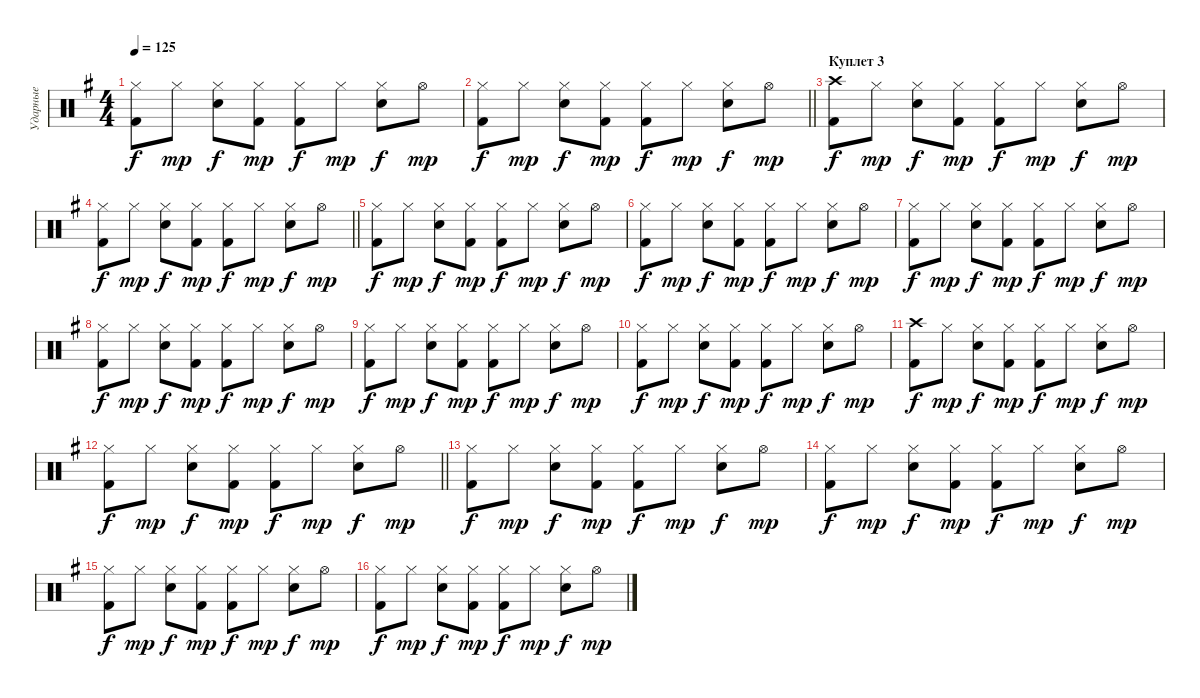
\track ("Ударные" "Ударные") {instrument percussion}
\staff {score}
\articulation defaults
\ts (4 4)
\tempo 125
\clef neutral
\ks eminor
("Hi-Hat (closed)" "Kick (hit) 2").8{dy f} "Hi-Hat (closed)".8{dy mp} ("Hi-Hat (closed)" "Snare (hit) 2").8{dy f} ("Hi-Hat (closed)" "Kick (hit) 2").8{dy mp} ("Hi-Hat (closed)" "Kick (hit) 2").8{dy f} "Hi-Hat (closed)".8{dy mp} ("Hi-Hat (closed)" "Snare (hit) 2").8{dy f} "Hi-Hat (open)".8{dy mp} |
\barLineRight lightlight
("Hi-Hat (closed)" "Kick (hit) 2").8{dy f} "Hi-Hat (closed)".8{dy mp} ("Hi-Hat (closed)" "Snare (hit) 2").8{dy f} ("Hi-Hat (closed)" "Kick (hit) 2").8{dy mp} ("Hi-Hat (closed)" "Kick (hit) 2").8{dy f} "Hi-Hat (closed)".8{dy mp} ("Hi-Hat (closed)" "Snare (hit) 2").8{dy f} "Hi-Hat (open)".8{dy mp} |
\section ("" "Куплет 3")
("Crash high (hit)" "Kick (hit) 2").8{dy f} "Hi-Hat (closed)".8{dy mp} ("Hi-Hat (closed)" "Snare (hit) 2").8{dy f} ("Hi-Hat (closed)" "Kick (hit) 2").8{dy mp} ("Hi-Hat (closed)" "Kick (hit) 2").8{dy f} "Hi-Hat (closed)".8{dy mp} ("Hi-Hat (closed)" "Snare (hit) 2").8{dy f} "Hi-Hat (open)".8{dy mp} |
\barLineRight lightlight
("Hi-Hat (closed)" "Kick (hit) 2").8{dy f} "Hi-Hat (closed)".8{dy mp} ("Hi-Hat (closed)" "Snare (hit) 2").8{dy f} ("Hi-Hat (closed)" "Kick (hit) 2").8{dy mp} ("Hi-Hat (closed)" "Kick (hit) 2").8{dy f} "Hi-Hat (closed)".8{dy mp} ("Hi-Hat (closed)" "Snare (hit) 2").8{dy f} "Hi-Hat (open)".8{dy mp} |
("Hi-Hat (closed)" "Kick (hit) 2").8{dy f} "Hi-Hat (closed)".8{dy mp} ("Hi-Hat (closed)" "Snare (hit) 2").8{dy f} ("Hi-Hat (closed)" "Kick (hit) 2").8{dy mp} ("Hi-Hat (closed)" "Kick (hit) 2").8{dy f} "Hi-Hat (closed)".8{dy mp} ("Hi-Hat (closed)" "Snare (hit) 2").8{dy f} "Hi-Hat (open)".8{dy mp} |
("Hi-Hat (closed)" "Kick (hit) 2").8{dy f} "Hi-Hat (closed)".8{dy mp} ("Hi-Hat (closed)" "Snare (hit) 2").8{dy f} ("Hi-Hat (closed)" "Kick (hit) 2").8{dy mp} ("Hi-Hat (closed)" "Kick (hit) 2").8{dy f} "Hi-Hat (closed)".8{dy mp} ("Hi-Hat (closed)" "Snare (hit) 2").8{dy f} "Hi-Hat (open)".8{dy mp} |
("Hi-Hat (closed)" "Kick (hit) 2").8{dy f} "Hi-Hat (closed)".8{dy mp} ("Hi-Hat (closed)" "Snare (hit) 2").8{dy f} ("Hi-Hat (closed)" "Kick (hit) 2").8{dy mp} ("Hi-Hat (closed)" "Kick (hit) 2").8{dy f} "Hi-Hat (closed)".8{dy mp} ("Hi-Hat (closed)" "Snare (hit) 2").8{dy f} "Hi-Hat (open)".8{dy mp} |
("Hi-Hat (closed)" "Kick (hit) 2").8{dy f} "Hi-Hat (closed)".8{dy mp} ("Hi-Hat (closed)" "Snare (hit) 2").8{dy f} ("Hi-Hat (closed)" "Kick (hit) 2").8{dy mp} ("Hi-Hat (closed)" "Kick (hit) 2").8{dy f} "Hi-Hat (closed)".8{dy mp} ("Hi-Hat (closed)" "Snare (hit) 2").8{dy f} "Hi-Hat (open)".8{dy mp} |
("Hi-Hat (closed)" "Kick (hit) 2").8{dy f} "Hi-Hat (closed)".8{dy mp} ("Hi-Hat (closed)" "Snare (hit) 2").8{dy f} ("Hi-Hat (closed)" "Kick (hit) 2").8{dy mp} ("Hi-Hat (closed)" "Kick (hit) 2").8{dy f} "Hi-Hat (closed)".8{dy mp} ("Hi-Hat (closed)" "Snare (hit) 2").8{dy f} "Hi-Hat (open)".8{dy mp} |
("Hi-Hat (closed)" "Kick (hit) 2").8{dy f} "Hi-Hat (closed)".8{dy mp} ("Hi-Hat (closed)" "Snare (hit) 2").8{dy f} ("Hi-Hat (closed)" "Kick (hit) 2").8{dy mp} ("Hi-Hat (closed)" "Kick (hit) 2").8{dy f} "Hi-Hat (closed)".8{dy mp} ("Hi-Hat (closed)" "Snare (hit) 2").8{dy f} "Hi-Hat (open)".8{dy mp} |
("Crash high (hit)" "Kick (hit) 2").8{dy f} "Hi-Hat (closed)".8{dy mp} ("Hi-Hat (closed)" "Snare (hit) 2").8{dy f} ("Hi-Hat (closed)" "Kick (hit) 2").8{dy mp} ("Hi-Hat (closed)" "Kick (hit) 2").8{dy f} "Hi-Hat (closed)".8{dy mp} ("Hi-Hat (closed)" "Snare (hit) 2").8{dy f} "Hi-Hat (open)".8{dy mp} |
\barLineRight lightlight
("Hi-Hat (closed)" "Kick (hit) 2").8{dy f} "Hi-Hat (closed)".8{dy mp} ("Hi-Hat (closed)" "Snare (hit) 2").8{dy f} ("Hi-Hat (closed)" "Kick (hit) 2").8{dy mp} ("Hi-Hat (closed)" "Kick (hit) 2").8{dy f} "Hi-Hat (closed)".8{dy mp} ("Hi-Hat (closed)" "Snare (hit) 2").8{dy f} "Hi-Hat (open)".8{dy mp} |
("Hi-Hat (closed)" "Kick (hit) 2").8{dy f} "Hi-Hat (closed)".8{dy mp} ("Hi-Hat (closed)" "Snare (hit) 2").8{dy f} ("Hi-Hat (closed)" "Kick (hit) 2").8{dy mp} ("Hi-Hat (closed)" "Kick (hit) 2").8{dy f} "Hi-Hat (closed)".8{dy mp} ("Hi-Hat (closed)" "Snare (hit) 2").8{dy f} "Hi-Hat (open)".8{dy mp} |
("Hi-Hat (closed)" "Kick (hit) 2").8{dy f} "Hi-Hat (closed)".8{dy mp} ("Hi-Hat (closed)" "Snare (hit) 2").8{dy f} ("Hi-Hat (closed)" "Kick (hit) 2").8{dy mp} ("Hi-Hat (closed)" "Kick (hit) 2").8{dy f} "Hi-Hat (closed)".8{dy mp} ("Hi-Hat (closed)" "Snare (hit) 2").8{dy f} "Hi-Hat (open)".8{dy mp} |
("Hi-Hat (closed)" "Kick (hit) 2").8{dy f} "Hi-Hat (closed)".8{dy mp} ("Hi-Hat (closed)" "Snare (hit) 2").8{dy f} ("Hi-Hat (closed)" "Kick (hit) 2").8{dy mp} ("Hi-Hat (closed)" "Kick (hit) 2").8{dy f} "Hi-Hat (closed)".8{dy mp} ("Hi-Hat (closed)" "Snare (hit) 2").8{dy f} "Hi-Hat (open)".8{dy mp} |
("Hi-Hat (closed)" "Kick (hit) 2").8{dy f} "Hi-Hat (closed)".8{dy mp} ("Hi-Hat (closed)" "Snare (hit) 2").8{dy f} ("Hi-Hat (closed)" "Kick (hit) 2").8{dy mp} ("Hi-Hat (closed)" "Kick (hit) 2").8{dy f} "Hi-Hat (closed)".8{dy mp} ("Hi-Hat (closed)" "Snare (hit) 2").8{dy f} "Hi-Hat (open)".8{dy mp}
